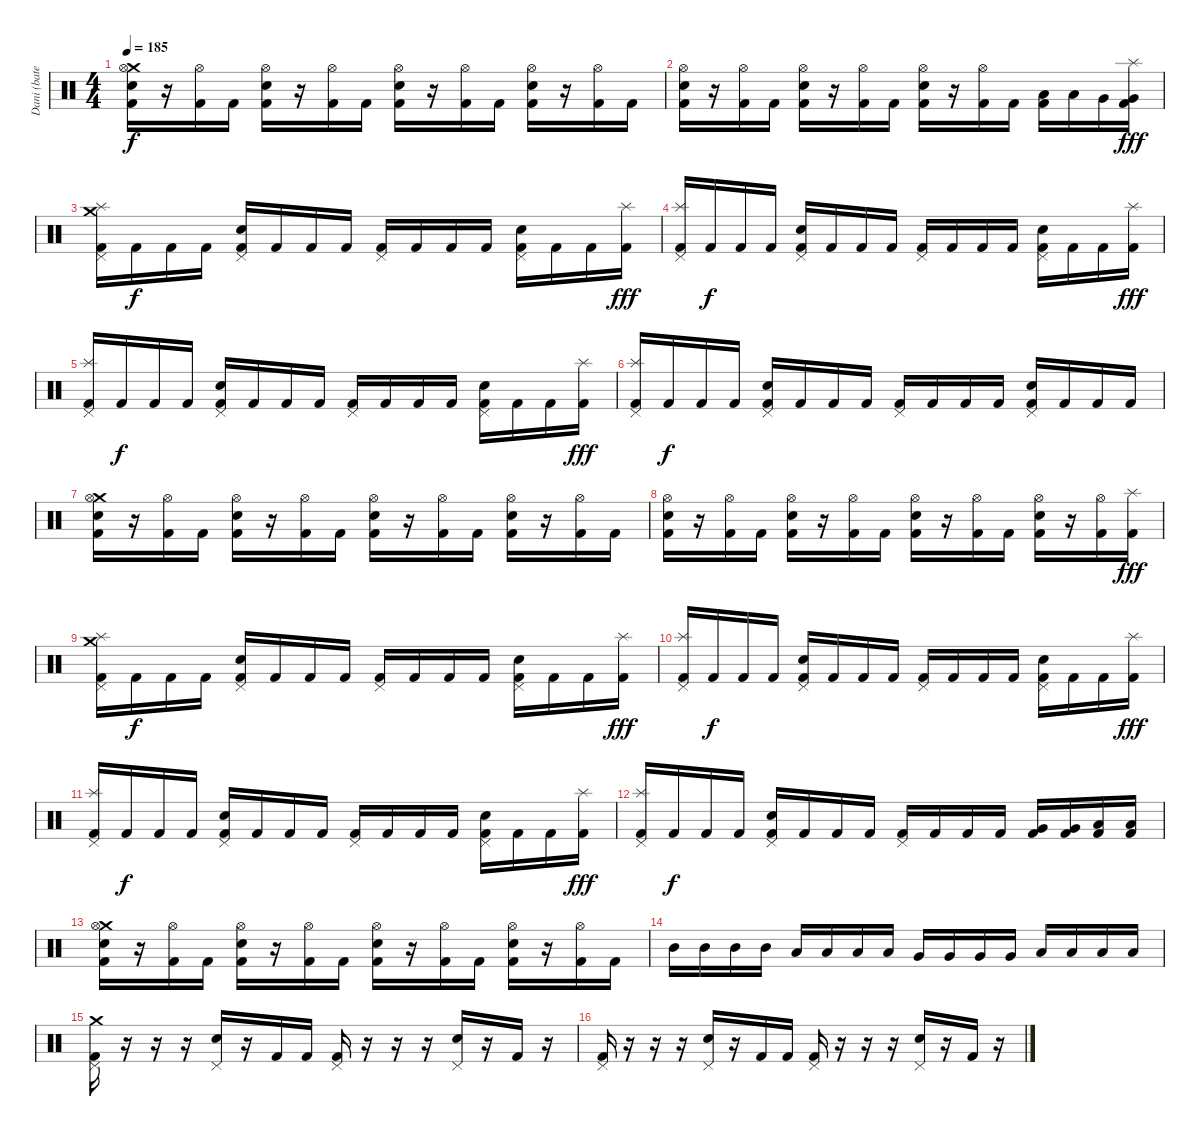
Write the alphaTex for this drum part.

\track ("Dani (batería)" "Dani (bate") {instrument percussion}
\staff {score}
\articulation defaults
\ts (4 4)
\tempo 185
\clef neutral
\ks c
("Crash medium (hit)" "Hi-Hat (open)" "Snare (hit) 2" "Kick (hit) 2").16{dy f} r.16 ("Hi-Hat (open)" "Kick (hit) 2").16 "Kick (hit) 2".16 ("Hi-Hat (open)" "Snare (hit) 2" "Kick (hit) 2").16 r.16 ("Hi-Hat (open)" "Kick (hit) 2").16 "Kick (hit) 2".16 ("Hi-Hat (open)" "Snare (hit) 2" "Kick (hit) 2").16 r.16 ("Hi-Hat (open)" "Kick (hit) 2").16 "Kick (hit) 2".16 ("Hi-Hat (open)" "Snare (hit) 2" "Kick (hit) 2").16 r.16 ("Hi-Hat (open)" "Kick (hit) 2").16 "Kick (hit) 2".16 |
("Hi-Hat (open)" "Snare (hit) 2" "Kick (hit) 2").16 r.16 ("Hi-Hat (open)" "Kick (hit) 2").16 "Kick (hit) 2".16 ("Hi-Hat (open)" "Snare (hit) 2" "Kick (hit) 2").16 r.16 ("Hi-Hat (open)" "Kick (hit) 2").16 "Kick (hit) 2".16 ("Hi-Hat (open)" "Snare (hit) 2" "Kick (hit) 2").16 r.16 ("Hi-Hat (open)" "Kick (hit) 2").16 "Kick (hit) 2".16 ("Low Tom (hit)" "Kick (hit) 2").16 "Low Tom (hit)".16 "Very Low Tom (hit)".16 ("Splash (hit)" "Very Low Tom (hit)" "Kick (hit) 2").16{dy fff} |
("Splash (hit)" "Crash medium (hit)" "Pedal Hi-Hat (hit)" "Kick (hit) 2").16 "Kick (hit) 2".16{dy f} "Kick (hit) 2".16 "Kick (hit) 2".16 ("Pedal Hi-Hat (hit)" "Snare (hit) 2" "Kick (hit) 2").16 "Kick (hit) 2".16 "Kick (hit) 2".16 "Kick (hit) 2".16 ("Pedal Hi-Hat (hit)" "Kick (hit) 2").16 "Kick (hit) 2".16 "Kick (hit) 2".16 "Kick (hit) 2".16 ("Pedal Hi-Hat (hit)" "Snare (hit) 2" "Kick (hit) 2").16 "Kick (hit) 2".16 "Kick (hit) 2".16 ("Splash (hit)" "Kick (hit) 2").16{dy fff} |
("Splash (hit)" "Pedal Hi-Hat (hit)" "Kick (hit) 2").16 "Kick (hit) 2".16{dy f} "Kick (hit) 2".16 "Kick (hit) 2".16 ("Pedal Hi-Hat (hit)" "Snare (hit) 2" "Kick (hit) 2").16 "Kick (hit) 2".16 "Kick (hit) 2".16 "Kick (hit) 2".16 ("Pedal Hi-Hat (hit)" "Kick (hit) 2").16 "Kick (hit) 2".16 "Kick (hit) 2".16 "Kick (hit) 2".16 ("Pedal Hi-Hat (hit)" "Snare (hit) 2" "Kick (hit) 2").16 "Kick (hit) 2".16 "Kick (hit) 2".16 ("Splash (hit)" "Kick (hit) 2").16{dy fff} |
("Splash (hit)" "Pedal Hi-Hat (hit)" "Kick (hit) 2").16 "Kick (hit) 2".16{dy f} "Kick (hit) 2".16 "Kick (hit) 2".16 ("Pedal Hi-Hat (hit)" "Snare (hit) 2" "Kick (hit) 2").16 "Kick (hit) 2".16 "Kick (hit) 2".16 "Kick (hit) 2".16 ("Pedal Hi-Hat (hit)" "Kick (hit) 2").16 "Kick (hit) 2".16 "Kick (hit) 2".16 "Kick (hit) 2".16 ("Pedal Hi-Hat (hit)" "Snare (hit) 2" "Kick (hit) 2").16 "Kick (hit) 2".16 "Kick (hit) 2".16 ("Splash (hit)" "Kick (hit) 2").16{dy fff} |
("Splash (hit)" "Pedal Hi-Hat (hit)" "Kick (hit) 2").16 "Kick (hit) 2".16{dy f} "Kick (hit) 2".16 "Kick (hit) 2".16 ("Pedal Hi-Hat (hit)" "Snare (hit) 2" "Kick (hit) 2").16 "Kick (hit) 2".16 "Kick (hit) 2".16 "Kick (hit) 2".16 ("Pedal Hi-Hat (hit)" "Kick (hit) 2").16 "Kick (hit) 2".16 "Kick (hit) 2".16 "Kick (hit) 2".16 ("Pedal Hi-Hat (hit)" "Snare (hit) 2" "Kick (hit) 2").16 "Kick (hit) 2".16 "Kick (hit) 2".16 "Kick (hit) 2".16 |
("Crash medium (hit)" "Hi-Hat (open)" "Snare (hit) 2" "Kick (hit) 2").16 r.16 ("Hi-Hat (open)" "Kick (hit) 2").16 "Kick (hit) 2".16 ("Hi-Hat (open)" "Snare (hit) 2" "Kick (hit) 2").16 r.16 ("Hi-Hat (open)" "Kick (hit) 2").16 "Kick (hit) 2".16 ("Hi-Hat (open)" "Snare (hit) 2" "Kick (hit) 2").16 r.16 ("Hi-Hat (open)" "Kick (hit) 2").16 "Kick (hit) 2".16 ("Hi-Hat (open)" "Snare (hit) 2" "Kick (hit) 2").16 r.16 ("Hi-Hat (open)" "Kick (hit) 2").16 "Kick (hit) 2".16 |
("Hi-Hat (open)" "Snare (hit) 2" "Kick (hit) 2").16 r.16 ("Hi-Hat (open)" "Kick (hit) 2").16 "Kick (hit) 2".16 ("Hi-Hat (open)" "Snare (hit) 2" "Kick (hit) 2").16 r.16 ("Hi-Hat (open)" "Kick (hit) 2").16 "Kick (hit) 2".16 ("Hi-Hat (open)" "Snare (hit) 2" "Kick (hit) 2").16 r.16 ("Hi-Hat (open)" "Kick (hit) 2").16 "Kick (hit) 2".16 ("Hi-Hat (open)" "Snare (hit) 2" "Kick (hit) 2").16 r.16 ("Hi-Hat (open)" "Kick (hit) 2").16 ("Splash (hit)" "Kick (hit) 2").16{dy fff} |
("Splash (hit)" "Crash medium (hit)" "Pedal Hi-Hat (hit)" "Kick (hit) 2").16 "Kick (hit) 2".16{dy f} "Kick (hit) 2".16 "Kick (hit) 2".16 ("Pedal Hi-Hat (hit)" "Snare (hit) 2" "Kick (hit) 2").16 "Kick (hit) 2".16 "Kick (hit) 2".16 "Kick (hit) 2".16 ("Pedal Hi-Hat (hit)" "Kick (hit) 2").16 "Kick (hit) 2".16 "Kick (hit) 2".16 "Kick (hit) 2".16 ("Pedal Hi-Hat (hit)" "Snare (hit) 2" "Kick (hit) 2").16 "Kick (hit) 2".16 "Kick (hit) 2".16 ("Splash (hit)" "Kick (hit) 2").16{dy fff} |
("Splash (hit)" "Pedal Hi-Hat (hit)" "Kick (hit) 2").16 "Kick (hit) 2".16{dy f} "Kick (hit) 2".16 "Kick (hit) 2".16 ("Pedal Hi-Hat (hit)" "Snare (hit) 2" "Kick (hit) 2").16 "Kick (hit) 2".16 "Kick (hit) 2".16 "Kick (hit) 2".16 ("Pedal Hi-Hat (hit)" "Kick (hit) 2").16 "Kick (hit) 2".16 "Kick (hit) 2".16 "Kick (hit) 2".16 ("Pedal Hi-Hat (hit)" "Snare (hit) 2" "Kick (hit) 2").16 "Kick (hit) 2".16 "Kick (hit) 2".16 ("Splash (hit)" "Kick (hit) 2").16{dy fff} |
("Splash (hit)" "Pedal Hi-Hat (hit)" "Kick (hit) 2").16 "Kick (hit) 2".16{dy f} "Kick (hit) 2".16 "Kick (hit) 2".16 ("Pedal Hi-Hat (hit)" "Snare (hit) 2" "Kick (hit) 2").16 "Kick (hit) 2".16 "Kick (hit) 2".16 "Kick (hit) 2".16 ("Pedal Hi-Hat (hit)" "Kick (hit) 2").16 "Kick (hit) 2".16 "Kick (hit) 2".16 "Kick (hit) 2".16 ("Pedal Hi-Hat (hit)" "Snare (hit) 2" "Kick (hit) 2").16 "Kick (hit) 2".16 "Kick (hit) 2".16 ("Splash (hit)" "Kick (hit) 2").16{dy fff} |
("Splash (hit)" "Pedal Hi-Hat (hit)" "Kick (hit) 2").16 "Kick (hit) 2".16{dy f} "Kick (hit) 2".16 "Kick (hit) 2".16 ("Pedal Hi-Hat (hit)" "Snare (hit) 2" "Kick (hit) 2").16 "Kick (hit) 2".16 "Kick (hit) 2".16 "Kick (hit) 2".16 ("Pedal Hi-Hat (hit)" "Kick (hit) 2").16 "Kick (hit) 2".16 "Kick (hit) 2".16 "Kick (hit) 2".16 ("Very Low Tom (hit)" "Kick (hit) 2").16 ("Very Low Tom (hit)" "Kick (hit) 2").16 ("Low Floor Tom (hit)" "Kick (hit) 2").16 ("Low Floor Tom (hit)" "Kick (hit) 2").16 |
("Crash medium (hit)" "Hi-Hat (open)" "Snare (hit) 2" "Kick (hit) 2").16 r.16 ("Hi-Hat (open)" "Kick (hit) 2").16 "Kick (hit) 2".16 ("Hi-Hat (open)" "Snare (hit) 2" "Kick (hit) 2").16 r.16 ("Hi-Hat (open)" "Kick (hit) 2").16 "Kick (hit) 2".16 ("Hi-Hat (open)" "Snare (hit) 2" "Kick (hit) 2").16 r.16 ("Hi-Hat (open)" "Kick (hit) 2").16 "Kick (hit) 2".16 ("Hi-Hat (open)" "Snare (hit) 2" "Kick (hit) 2").16 r.16 ("Hi-Hat (open)" "Kick (hit) 2").16 "Kick (hit) 2".16 |
"Mid Tom (hit)".16 "Mid Tom (hit)".16 "Mid Tom (hit)".16 "Mid Tom (hit)".16 "Low Tom (hit)".16 "Low Tom (hit)".16 "Low Tom (hit)".16 "Low Tom (hit)".16 "Very Low Tom (hit)".16 "Very Low Tom (hit)".16 "Very Low Tom (hit)".16 "Very Low Tom (hit)".16 "Low Floor Tom (hit)".16 "Low Floor Tom (hit)".16 "Low Floor Tom (hit)".16 "Low Floor Tom (hit)".16 |
("Crash medium (hit)" "Pedal Hi-Hat (hit)" "Kick (hit) 2").16 r.16 r.16 r.16 ("Pedal Hi-Hat (hit)" "Snare (hit) 2").16 r.16 "Kick (hit) 2".16 "Kick (hit) 2".16 ("Pedal Hi-Hat (hit)" "Kick (hit) 2").16 r.16 r.16 r.16 ("Pedal Hi-Hat (hit)" "Snare (hit) 2").16 r.16 "Kick (hit) 2".16 r.16 |
("Pedal Hi-Hat (hit)" "Kick (hit) 2").16 r.16 r.16 r.16 ("Pedal Hi-Hat (hit)" "Snare (hit) 2").16 r.16 "Kick (hit) 2".16 "Kick (hit) 2".16 ("Pedal Hi-Hat (hit)" "Kick (hit) 2").16 r.16 r.16 r.16 ("Pedal Hi-Hat (hit)" "Snare (hit) 2").16 r.16 "Kick (hit) 2".16 r.16
